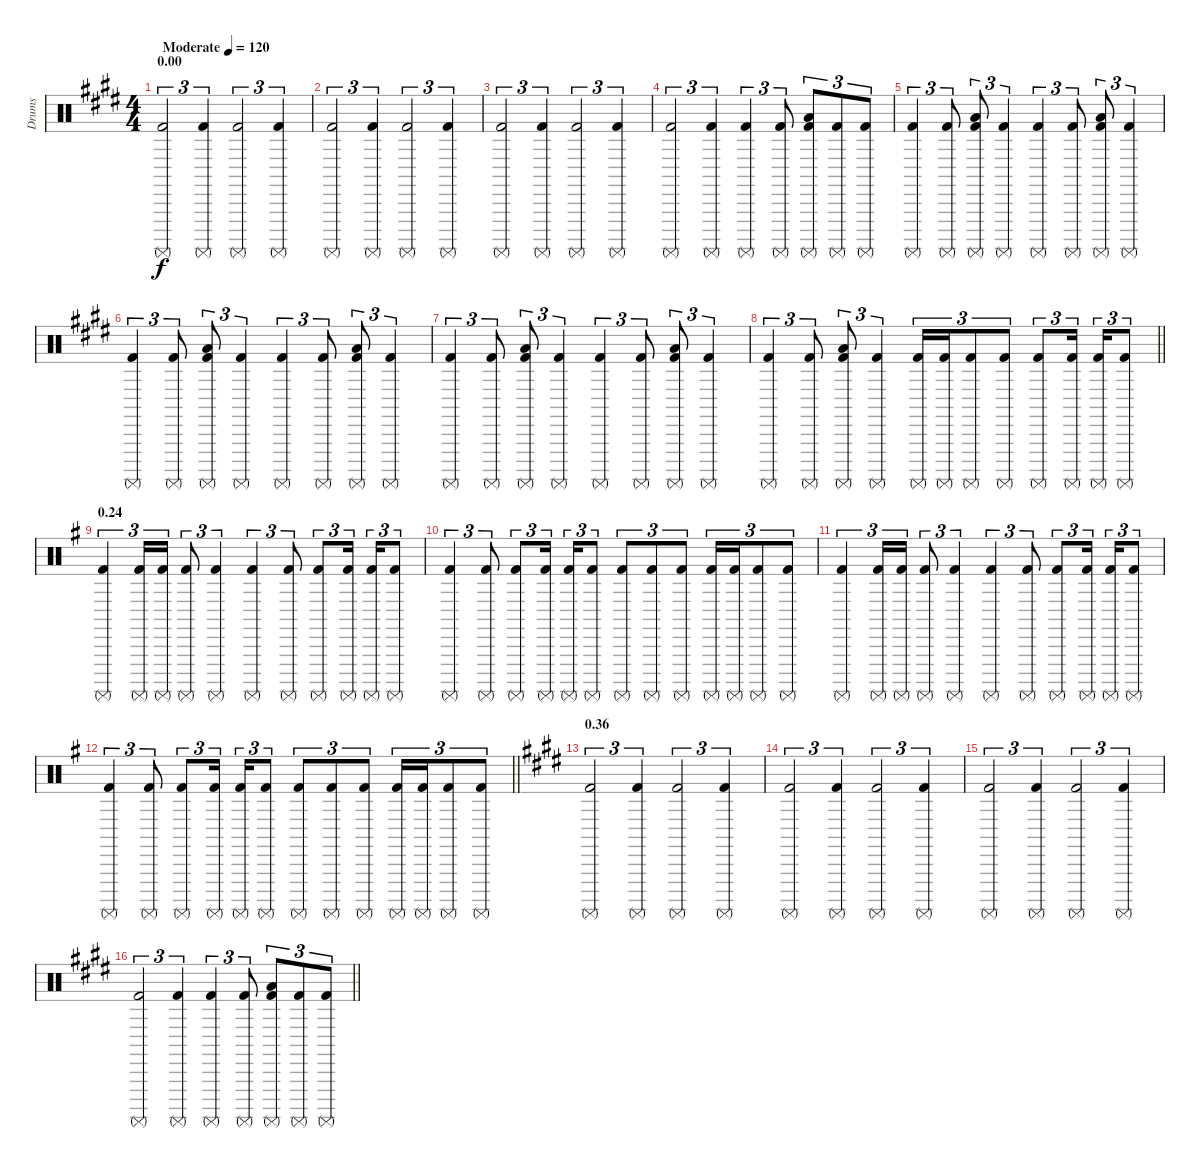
\track ("Drums" "Drums") {instrument percussion}
\staff {score}
\articulation defaults
\ts (4 4)
\section ("" "0.00")
\tempo (120 "Moderate")
\tempo 80
\tempo (120 "Moderate")
\clef neutral
\ks c#minor
("Surdo (mute)" "Kick (hit) 2").2{tu (3 2) dy f volume 13} ("Surdo (mute)" "Kick (hit) 2").4{tu (3 2)} ("Surdo (mute)" "Kick (hit) 2").2{tu (3 2)} ("Surdo (mute)" "Kick (hit) 2").4{tu (3 2)} |
("Surdo (mute)" "Kick (hit) 2").2{tu (3 2)} ("Surdo (mute)" "Kick (hit) 2").4{tu (3 2)} ("Surdo (mute)" "Kick (hit) 2").2{tu (3 2)} ("Surdo (mute)" "Kick (hit) 2").4{tu (3 2)} |
("Surdo (mute)" "Kick (hit) 2").2{tu (3 2)} ("Surdo (mute)" "Kick (hit) 2").4{tu (3 2)} ("Surdo (mute)" "Kick (hit) 2").2{tu (3 2)} ("Surdo (mute)" "Kick (hit) 2").4{tu (3 2)} |
("Surdo (mute)" "Kick (hit) 2").2{tu (3 2)} ("Surdo (mute)" "Kick (hit) 2").4{tu (3 2)} ("Surdo (mute)" "Kick (hit) 2").4{tu (3 2)} ("Surdo (mute)" "Kick (hit) 2").8{tu (3 2)} ("Low Tom (hit)" "Surdo (mute)" "Kick (hit) 2").8{tu (3 2)} ("Surdo (mute)" "Kick (hit) 2").8{tu (3 2)} ("Surdo (mute)" "Kick (hit) 2").8{tu (3 2)} |
("Surdo (mute)" "Kick (hit) 2").4{tu (3 2)} ("Surdo (mute)" "Kick (hit) 2").8{tu (3 2)} ("Low Tom (hit)" "Surdo (mute)" "Kick (hit) 2").8{tu (3 2)} ("Surdo (mute)" "Kick (hit) 2").4{tu (3 2)} ("Surdo (mute)" "Kick (hit) 2").4{tu (3 2)} ("Surdo (mute)" "Kick (hit) 2").8{tu (3 2)} ("Low Tom (hit)" "Surdo (mute)" "Kick (hit) 2").8{tu (3 2)} ("Surdo (mute)" "Kick (hit) 2").4{tu (3 2)} |
("Surdo (mute)" "Kick (hit) 2").4{tu (3 2)} ("Surdo (mute)" "Kick (hit) 2").8{tu (3 2)} ("Low Tom (hit)" "Surdo (mute)" "Kick (hit) 2").8{tu (3 2)} ("Surdo (mute)" "Kick (hit) 2").4{tu (3 2)} ("Surdo (mute)" "Kick (hit) 2").4{tu (3 2)} ("Surdo (mute)" "Kick (hit) 2").8{tu (3 2)} ("Low Tom (hit)" "Surdo (mute)" "Kick (hit) 2").8{tu (3 2)} ("Surdo (mute)" "Kick (hit) 2").4{tu (3 2)} |
("Surdo (mute)" "Kick (hit) 2").4{tu (3 2)} ("Surdo (mute)" "Kick (hit) 2").8{tu (3 2)} ("Low Tom (hit)" "Surdo (mute)" "Kick (hit) 2").8{tu (3 2)} ("Surdo (mute)" "Kick (hit) 2").4{tu (3 2)} ("Surdo (mute)" "Kick (hit) 2").4{tu (3 2)} ("Surdo (mute)" "Kick (hit) 2").8{tu (3 2)} ("Low Tom (hit)" "Surdo (mute)" "Kick (hit) 2").8{tu (3 2)} ("Surdo (mute)" "Kick (hit) 2").4{tu (3 2)} |
\barLineRight lightlight
("Surdo (mute)" "Kick (hit) 2").4{tu (3 2)} ("Surdo (mute)" "Kick (hit) 2").8{tu (3 2)} ("Low Tom (hit)" "Surdo (mute)" "Kick (hit) 2").8{tu (3 2)} ("Surdo (mute)" "Kick (hit) 2").4{tu (3 2)} ("Surdo (mute)" "Kick (hit) 2").16{tu (3 2)} ("Surdo (mute)" "Kick (hit) 2").16{tu (3 2)} ("Surdo (mute)" "Kick (hit) 2").8{tu (3 2)} ("Surdo (mute)" "Kick (hit) 2").8{tu (3 2)} ("Surdo (mute)" "Kick (hit) 2").8{tu (3 2)} ("Surdo (mute)" "Kick (hit) 2").16{tu (3 2) beam splitsecondary} ("Surdo (mute)" "Kick (hit) 2").16{tu (3 2)} ("Surdo (mute)" "Kick (hit) 2").8{tu (3 2)} |
\section ("" "0.24")
\ks eminor
("Surdo (mute)" "Kick (hit) 2").4{tu (3 2)} ("Surdo (mute)" "Kick (hit) 2").16{tu (3 2)} ("Surdo (mute)" "Kick (hit) 2").16{tu (3 2)} ("Surdo (mute)" "Kick (hit) 2").8{tu (3 2)} ("Surdo (mute)" "Kick (hit) 2").4{tu (3 2)} ("Surdo (mute)" "Kick (hit) 2").4{tu (3 2)} ("Surdo (mute)" "Kick (hit) 2").8{tu (3 2)} ("Surdo (mute)" "Kick (hit) 2").8{tu (3 2)} ("Surdo (mute)" "Kick (hit) 2").16{tu (3 2) beam splitsecondary} ("Surdo (mute)" "Kick (hit) 2").16{tu (3 2)} ("Surdo (mute)" "Kick (hit) 2").8{tu (3 2)} |
("Surdo (mute)" "Kick (hit) 2").4{tu (3 2)} ("Surdo (mute)" "Kick (hit) 2").8{tu (3 2)} ("Surdo (mute)" "Kick (hit) 2").8{tu (3 2)} ("Surdo (mute)" "Kick (hit) 2").16{tu (3 2) beam splitsecondary} ("Surdo (mute)" "Kick (hit) 2").16{tu (3 2)} ("Surdo (mute)" "Kick (hit) 2").8{tu (3 2)} ("Surdo (mute)" "Kick (hit) 2").8{tu (3 2)} ("Surdo (mute)" "Kick (hit) 2").8{tu (3 2)} ("Surdo (mute)" "Kick (hit) 2").8{tu (3 2)} ("Surdo (mute)" "Kick (hit) 2").16{tu (3 2)} ("Surdo (mute)" "Kick (hit) 2").16{tu (3 2)} ("Surdo (mute)" "Kick (hit) 2").8{tu (3 2)} ("Surdo (mute)" "Kick (hit) 2").8{tu (3 2)} |
("Surdo (mute)" "Kick (hit) 2").4{tu (3 2)} ("Surdo (mute)" "Kick (hit) 2").16{tu (3 2)} ("Surdo (mute)" "Kick (hit) 2").16{tu (3 2)} ("Surdo (mute)" "Kick (hit) 2").8{tu (3 2)} ("Surdo (mute)" "Kick (hit) 2").4{tu (3 2)} ("Surdo (mute)" "Kick (hit) 2").4{tu (3 2)} ("Surdo (mute)" "Kick (hit) 2").8{tu (3 2)} ("Surdo (mute)" "Kick (hit) 2").8{tu (3 2)} ("Surdo (mute)" "Kick (hit) 2").16{tu (3 2) beam splitsecondary} ("Surdo (mute)" "Kick (hit) 2").16{tu (3 2)} ("Surdo (mute)" "Kick (hit) 2").8{tu (3 2)} |
\barLineRight lightlight
("Surdo (mute)" "Kick (hit) 2").4{tu (3 2)} ("Surdo (mute)" "Kick (hit) 2").8{tu (3 2)} ("Surdo (mute)" "Kick (hit) 2").8{tu (3 2)} ("Surdo (mute)" "Kick (hit) 2").16{tu (3 2) beam splitsecondary} ("Surdo (mute)" "Kick (hit) 2").16{tu (3 2)} ("Surdo (mute)" "Kick (hit) 2").8{tu (3 2)} ("Surdo (mute)" "Kick (hit) 2").8{tu (3 2)} ("Surdo (mute)" "Kick (hit) 2").8{tu (3 2)} ("Surdo (mute)" "Kick (hit) 2").8{tu (3 2)} ("Surdo (mute)" "Kick (hit) 2").16{tu (3 2)} ("Surdo (mute)" "Kick (hit) 2").16{tu (3 2)} ("Surdo (mute)" "Kick (hit) 2").8{tu (3 2)} ("Surdo (mute)" "Kick (hit) 2").8{tu (3 2)} |
\section ("" "0.36")
\ks c#minor
("Surdo (mute)" "Kick (hit) 2").2{tu (3 2)} ("Surdo (mute)" "Kick (hit) 2").4{tu (3 2)} ("Surdo (mute)" "Kick (hit) 2").2{tu (3 2)} ("Surdo (mute)" "Kick (hit) 2").4{tu (3 2)} |
("Surdo (mute)" "Kick (hit) 2").2{tu (3 2)} ("Surdo (mute)" "Kick (hit) 2").4{tu (3 2)} ("Surdo (mute)" "Kick (hit) 2").2{tu (3 2)} ("Surdo (mute)" "Kick (hit) 2").4{tu (3 2)} |
("Surdo (mute)" "Kick (hit) 2").2{tu (3 2)} ("Surdo (mute)" "Kick (hit) 2").4{tu (3 2)} ("Surdo (mute)" "Kick (hit) 2").2{tu (3 2)} ("Surdo (mute)" "Kick (hit) 2").4{tu (3 2)} |
\barLineRight lightlight
("Surdo (mute)" "Kick (hit) 2").2{tu (3 2)} ("Surdo (mute)" "Kick (hit) 2").4{tu (3 2)} ("Surdo (mute)" "Kick (hit) 2").4{tu (3 2)} ("Surdo (mute)" "Kick (hit) 2").8{tu (3 2)} ("Low Tom (hit)" "Surdo (mute)" "Kick (hit) 2").8{tu (3 2)} ("Surdo (mute)" "Kick (hit) 2").8{tu (3 2)} ("Surdo (mute)" "Kick (hit) 2").8{tu (3 2)}
